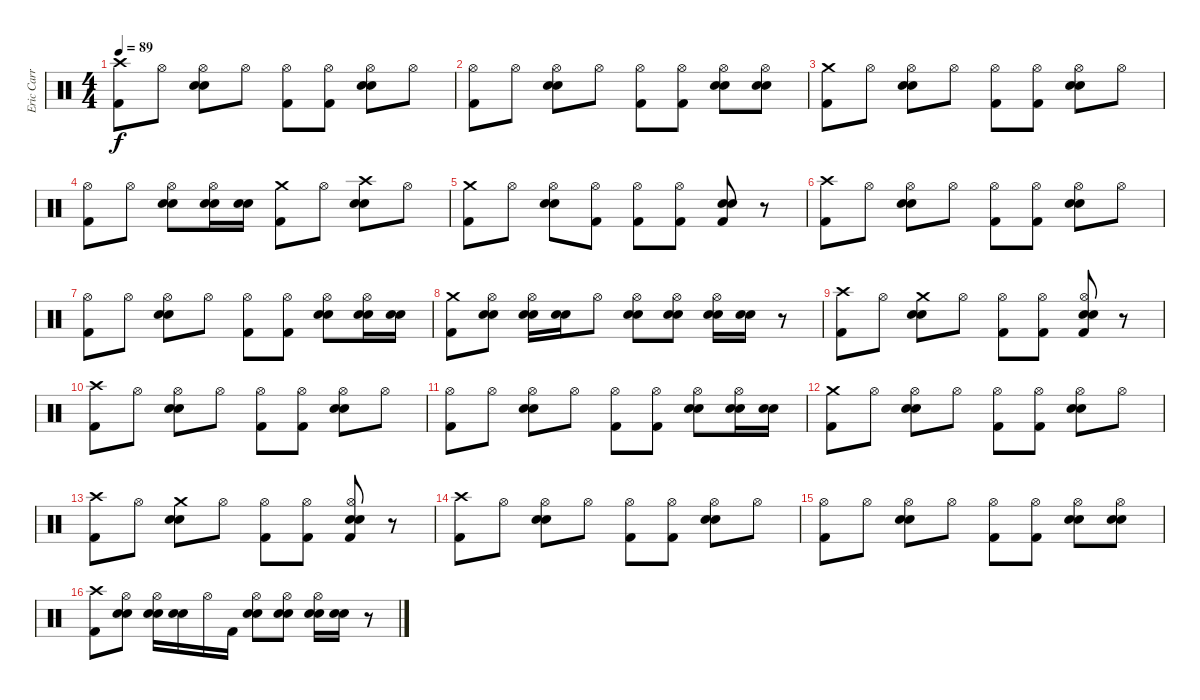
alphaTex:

\track ("Eric Carr (The Fox)" "Eric Carr ") {instrument percussion}
\staff {score}
\articulation defaults
\ts (4 4)
\tempo 89
\clef neutral
\ks c
("Crash high (hit)" "Kick (hit) 2").8{dy f} "Hi-Hat (open)".8 ("Electric Snare (hit)" "Snare (hit) 2" "Hi-Hat (open)").8 "Hi-Hat (open)".8 ("Kick (hit) 2" "Hi-Hat (open)").8 ("Kick (hit) 2" "Hi-Hat (open)").8 ("Electric Snare (hit)" "Snare (hit) 2" "Hi-Hat (open)").8 "Hi-Hat (open)".8 |
("Kick (hit) 2" "Hi-Hat (open)").8 "Hi-Hat (open)".8 ("Electric Snare (hit)" "Snare (hit) 2" "Hi-Hat (open)").8 "Hi-Hat (open)".8 ("Kick (hit) 2" "Hi-Hat (open)").8 ("Kick (hit) 2" "Hi-Hat (open)").8 ("Electric Snare (hit)" "Snare (hit) 2" "Hi-Hat (open)").8 ("Electric Snare (hit)" "Snare (hit) 2" "Hi-Hat (open)").8 |
("Crash medium (hit)" "Kick (hit) 2").8 "Hi-Hat (open)".8 ("Electric Snare (hit)" "Snare (hit) 2" "Hi-Hat (open)").8 "Hi-Hat (open)".8 ("Kick (hit) 2" "Hi-Hat (open)").8 ("Kick (hit) 2" "Hi-Hat (open)").8 ("Electric Snare (hit)" "Snare (hit) 2" "Hi-Hat (open)").8 "Hi-Hat (open)".8 |
("Hi-Hat (open)" "Kick (hit) 2").8 "Hi-Hat (open)".8 ("Electric Snare (hit)" "Hi-Hat (open)" "Snare (hit) 2").8 ("Electric Snare (hit)" "Snare (hit) 2" "Hi-Hat (open)").16 ("Electric Snare (hit)" "Snare (hit) 2").16 ("Crash medium (hit)" "Kick (hit) 2").8 "Hi-Hat (open)".8 ("Electric Snare (hit)" "Crash high (hit)" "Snare (hit) 2").8 "Hi-Hat (open)".8 |
("Crash medium (hit)" "Kick (hit) 2").8 "Hi-Hat (open)".8 ("Electric Snare (hit)" "Hi-Hat (open)" "Snare (hit) 2").8 ("Hi-Hat (open)" "Kick (hit) 2").8 ("Hi-Hat (open)" "Kick (hit) 2").8 ("Hi-Hat (open)" "Kick (hit) 2").8 ("Electric Snare (hit)" "Snare (hit) 2" "Kick (hit) 2").8 r.8 |
("Crash high (hit)" "Kick (hit) 2").8 "Hi-Hat (open)".8 ("Electric Snare (hit)" "Snare (hit) 2" "Hi-Hat (open)").8 "Hi-Hat (open)".8 ("Kick (hit) 2" "Hi-Hat (open)").8 ("Kick (hit) 2" "Hi-Hat (open)").8 ("Electric Snare (hit)" "Snare (hit) 2" "Hi-Hat (open)").8 "Hi-Hat (open)".8 |
("Kick (hit) 2" "Hi-Hat (open)").8 "Hi-Hat (open)".8 ("Electric Snare (hit)" "Snare (hit) 2" "Hi-Hat (open)").8 "Hi-Hat (open)".8 ("Kick (hit) 2" "Hi-Hat (open)").8 ("Kick (hit) 2" "Hi-Hat (open)").8 ("Electric Snare (hit)" "Snare (hit) 2" "Hi-Hat (open)").8 ("Electric Snare (hit)" "Snare (hit) 2" "Hi-Hat (open)").16 ("Electric Snare (hit)" "Snare (hit) 2").16 |
("Crash medium (hit)" "Kick (hit) 2").8 ("Electric Snare (hit)" "Snare (hit) 2" "Hi-Hat (open)").8 ("Electric Snare (hit)" "Snare (hit) 2" "Hi-Hat (open)").16 ("Electric Snare (hit)" "Snare (hit) 2").16 "Hi-Hat (open)".8 ("Electric Snare (hit)" "Snare (hit) 2" "Hi-Hat (open)").8 ("Electric Snare (hit)" "Snare (hit) 2" "Hi-Hat (open)").8 ("Electric Snare (hit)" "Snare (hit) 2" "Hi-Hat (open)").16 ("Electric Snare (hit)" "Snare (hit) 2").16 r.8 |
("Crash high (hit)" "Kick (hit) 2").8 "Hi-Hat (open)".8 ("Electric Snare (hit)" "Crash medium (hit)" "Snare (hit) 2").8 "Hi-Hat (open)".8 ("Kick (hit) 2" "Hi-Hat (open)").8 ("Kick (hit) 2" "Hi-Hat (open)").8 ("Electric Snare (hit)" "Kick (hit) 2" "Snare (hit) 2" "Hi-Hat (open)").8 r.8 |
("Crash high (hit)" "Kick (hit) 2").8 "Hi-Hat (open)".8 ("Electric Snare (hit)" "Snare (hit) 2" "Hi-Hat (open)").8 "Hi-Hat (open)".8 ("Kick (hit) 2" "Hi-Hat (open)").8 ("Kick (hit) 2" "Hi-Hat (open)").8 ("Electric Snare (hit)" "Snare (hit) 2" "Hi-Hat (open)").8 "Hi-Hat (open)".8 |
("Kick (hit) 2" "Hi-Hat (open)").8 "Hi-Hat (open)".8 ("Electric Snare (hit)" "Snare (hit) 2" "Hi-Hat (open)").8 "Hi-Hat (open)".8 ("Kick (hit) 2" "Hi-Hat (open)").8 ("Kick (hit) 2" "Hi-Hat (open)").8 ("Electric Snare (hit)" "Snare (hit) 2" "Hi-Hat (open)").8 ("Electric Snare (hit)" "Snare (hit) 2" "Hi-Hat (open)").16 ("Electric Snare (hit)" "Snare (hit) 2").16 |
("Crash medium (hit)" "Kick (hit) 2").8 "Hi-Hat (open)".8 ("Electric Snare (hit)" "Snare (hit) 2" "Hi-Hat (open)").8 "Hi-Hat (open)".8 ("Kick (hit) 2" "Hi-Hat (open)").8 ("Kick (hit) 2" "Hi-Hat (open)").8 ("Electric Snare (hit)" "Snare (hit) 2" "Hi-Hat (open)").8 "Hi-Hat (open)".8 |
("Crash high (hit)" "Kick (hit) 2").8 "Hi-Hat (open)".8 ("Electric Snare (hit)" "Crash medium (hit)" "Snare (hit) 2").8 "Hi-Hat (open)".8 ("Kick (hit) 2" "Hi-Hat (open)").8 ("Kick (hit) 2" "Hi-Hat (open)").8 ("Electric Snare (hit)" "Kick (hit) 2" "Snare (hit) 2" "Hi-Hat (open)").8 r.8 |
("Crash high (hit)" "Kick (hit) 2").8 "Hi-Hat (open)".8 ("Electric Snare (hit)" "Snare (hit) 2" "Hi-Hat (open)").8 "Hi-Hat (open)".8 ("Kick (hit) 2" "Hi-Hat (open)").8 ("Kick (hit) 2" "Hi-Hat (open)").8 ("Electric Snare (hit)" "Snare (hit) 2" "Hi-Hat (open)").8 "Hi-Hat (open)".8 |
("Kick (hit) 2" "Hi-Hat (open)").8 "Hi-Hat (open)".8 ("Electric Snare (hit)" "Snare (hit) 2" "Hi-Hat (open)").8 "Hi-Hat (open)".8 ("Kick (hit) 2" "Hi-Hat (open)").8 ("Kick (hit) 2" "Hi-Hat (open)").8 ("Electric Snare (hit)" "Snare (hit) 2" "Hi-Hat (open)").8 ("Electric Snare (hit)" "Snare (hit) 2" "Hi-Hat (open)").8 |
("Crash high (hit)" "Kick (hit) 2").8 ("Electric Snare (hit)" "Snare (hit) 2" "Hi-Hat (open)").8 ("Electric Snare (hit)" "Snare (hit) 2" "Hi-Hat (open)").16 ("Electric Snare (hit)" "Snare (hit) 2").16 "Hi-Hat (open)".16 "Kick (hit) 2".16 ("Electric Snare (hit)" "Snare (hit) 2" "Hi-Hat (open)").8 ("Electric Snare (hit)" "Snare (hit) 2" "Hi-Hat (open)").8 ("Electric Snare (hit)" "Snare (hit) 2" "Hi-Hat (open)").16 ("Electric Snare (hit)" "Snare (hit) 2").16 r.8
